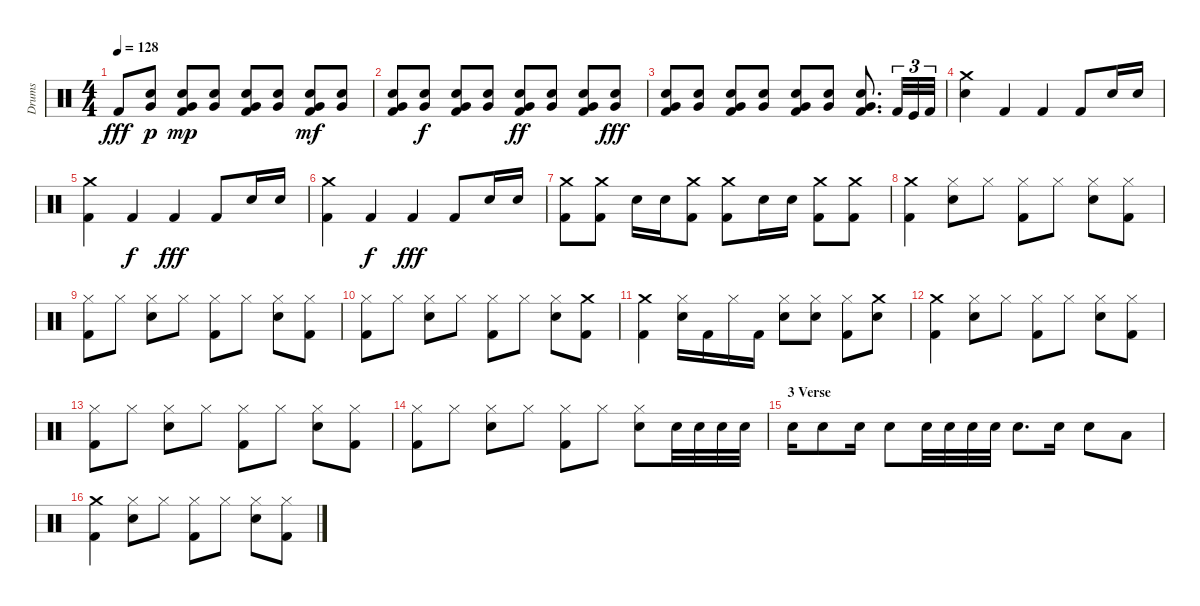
\track ("Drums" "Drums") {instrument percussion}
\staff {score}
\articulation defaults
\ts (4 4)
\tempo 128
\clef neutral
\ks c "Kick (hit) 2".8{dy fff}
("Very Low Tom (hit)" "Snare (hit) 2").8{dy p} ("Snare (hit) 2" "Very Low Tom (hit)" "Kick (hit) 2").8{dy mp} ("Snare (hit) 2" "Very Low Tom (hit)").8 ("Snare (hit) 2" "Very Low Tom (hit)" "Kick (hit) 2").8 ("Snare (hit) 2" "Very Low Tom (hit)").8 ("Snare (hit) 2" "Very Low Tom (hit)" "Kick (hit) 2").8{dy mf} ("Snare (hit) 2" "Very Low Tom (hit)").8 |
("Snare (hit) 2" "Very Low Tom (hit)" "Kick (hit) 2").8 ("Snare (hit) 2" "Very Low Tom (hit)").8{dy f} ("Snare (hit) 2" "Very Low Tom (hit)" "Kick (hit) 2").8 ("Snare (hit) 2" "Very Low Tom (hit)").8 ("Snare (hit) 2" "Very Low Tom (hit)" "Kick (hit) 2").8{dy ff} ("Snare (hit) 2" "Very Low Tom (hit)").8 ("Snare (hit) 2" "Very Low Tom (hit)" "Kick (hit) 2").8 ("Snare (hit) 2" "Very Low Tom (hit)").8{dy fff} |
("Snare (hit) 2" "Very Low Tom (hit)" "Kick (hit) 2").8 ("Snare (hit) 2" "Very Low Tom (hit)").8 ("Snare (hit) 2" "Very Low Tom (hit)" "Kick (hit) 2").8 ("Snare (hit) 2" "Very Low Tom (hit)").8 ("Snare (hit) 2" "Very Low Tom (hit)" "Kick (hit) 2").8 ("Snare (hit) 2" "Very Low Tom (hit)").8 ("Kick (hit) 2" "Snare (hit) 2" "Very Low Tom (hit)").8{d} "Kick (hit) 2".32{tu (3 2)} "Kick (hit)".32{tu (3 2)} "Kick (hit) 2".32{tu (3 2)} |
("Crash medium (hit)" "Snare (hit) 2").4 "Kick (hit) 2".4 "Kick (hit) 2".4 "Kick (hit) 2".8 "Snare (hit) 2".16 "Snare (hit) 2".16 |
("Kick (hit) 2" "Crash medium (hit)").4 "Kick (hit) 2".4{dy f} "Kick (hit) 2".4{dy fff} "Kick (hit) 2".8 "Snare (hit) 2".16 "Snare (hit) 2".16 |
("Kick (hit) 2" "Crash medium (hit)").4 "Kick (hit) 2".4{dy f} "Kick (hit) 2".4{dy fff} "Kick (hit) 2".8 "Snare (hit) 2".16 "Snare (hit) 2".16 |
("Kick (hit) 2" "Crash medium (hit)").8 ("Kick (hit) 2" "Crash medium (hit)").8 "Snare (hit) 2".16 "Snare (hit) 2".16 ("Kick (hit) 2" "Crash medium (hit)").8 ("Crash medium (hit)" "Kick (hit) 2").8 "Snare (hit) 2".16 "Snare (hit) 2".16 ("Kick (hit) 2" "Crash medium (hit)").8 ("Kick (hit) 2" "Crash medium (hit)").8 |
("Kick (hit) 2" "Crash medium (hit)").4 ("Hi-Hat (closed)" "Snare (hit) 2").8 "Hi-Hat (closed)".8 ("Kick (hit) 2" "Hi-Hat (closed)").8 "Hi-Hat (closed)".8 ("Hi-Hat (closed)" "Snare (hit) 2").8 ("Kick (hit) 2" "Hi-Hat (closed)").8 |
("Hi-Hat (closed)" "Kick (hit) 2").8 "Hi-Hat (closed)".8 ("Hi-Hat (closed)" "Snare (hit) 2").8 "Hi-Hat (closed)".8 ("Hi-Hat (closed)" "Kick (hit) 2").8 "Hi-Hat (closed)".8 ("Hi-Hat (closed)" "Snare (hit) 2").8 ("Kick (hit) 2" "Hi-Hat (closed)").8 |
("Hi-Hat (closed)" "Kick (hit) 2").8 "Hi-Hat (closed)".8 ("Hi-Hat (closed)" "Snare (hit) 2").8 "Hi-Hat (closed)".8 ("Hi-Hat (closed)" "Kick (hit) 2").8 "Hi-Hat (closed)".8 ("Hi-Hat (closed)" "Snare (hit) 2").8 ("Kick (hit) 2" "Crash medium (hit)").8 |
("Kick (hit) 2" "Crash medium (hit)").4 ("Hi-Hat (closed)" "Snare (hit) 2").16 "Kick (hit) 2".16 "Hi-Hat (closed)".16 "Kick (hit) 2".16 ("Snare (hit) 2" "Hi-Hat (closed)").8 ("Snare (hit) 2" "Hi-Hat (closed)").8 ("Kick (hit) 2" "Hi-Hat (closed)").8 ("Crash medium (hit)" "Snare (hit) 2").8 |
("Kick (hit) 2" "Crash medium (hit)").4 ("Hi-Hat (closed)" "Snare (hit) 2").8 "Hi-Hat (closed)".8 ("Kick (hit) 2" "Hi-Hat (closed)").8 "Hi-Hat (closed)".8 ("Hi-Hat (closed)" "Snare (hit) 2").8 ("Kick (hit) 2" "Hi-Hat (closed)").8 |
("Hi-Hat (closed)" "Kick (hit) 2").8 "Hi-Hat (closed)".8 ("Hi-Hat (closed)" "Snare (hit) 2").8 "Hi-Hat (closed)".8 ("Hi-Hat (closed)" "Kick (hit) 2").8 "Hi-Hat (closed)".8 ("Hi-Hat (closed)" "Snare (hit) 2").8 ("Kick (hit) 2" "Hi-Hat (closed)").8 |
("Hi-Hat (closed)" "Kick (hit) 2").8 "Hi-Hat (closed)".8 ("Hi-Hat (closed)" "Snare (hit) 2").8 "Hi-Hat (closed)".8 ("Hi-Hat (closed)" "Kick (hit) 2").8 "Hi-Hat (closed)".8 ("Snare (hit) 2" "Hi-Hat (closed)").8 "Snare (hit) 2".32 "Snare (hit) 2".32 "Snare (hit) 2".32 "Snare (hit) 2".32 |
\section ("" "3 Verse")
"Snare (hit) 2".16 "Snare (hit) 2".8 "Snare (hit) 2".16 "Snare (hit) 2".8 "Snare (hit) 2".32 "Snare (hit) 2".32 "Snare (hit) 2".32 "Snare (hit) 2".32 "Snare (hit) 2".8{d} "Snare (hit) 2".16 "Snare (hit) 2".8 "Low Tom (hit)".8 |
("Kick (hit) 2" "Crash medium (hit)").4 ("Snare (hit) 2" "Hi-Hat (closed)").8 "Hi-Hat (closed)".8 ("Hi-Hat (closed)" "Kick (hit) 2").8 "Hi-Hat (closed)".8 ("Snare (hit) 2" "Hi-Hat (closed)").8 ("Kick (hit) 2" "Hi-Hat (closed)").8
